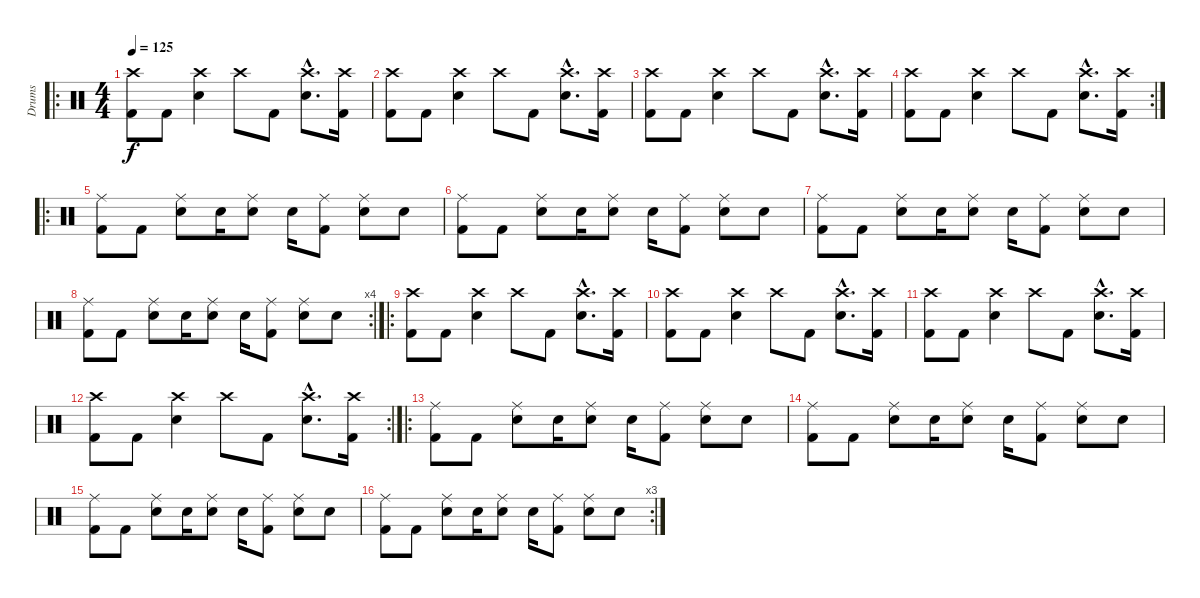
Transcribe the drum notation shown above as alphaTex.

\track ("Drums" "Drums") {instrument percussion}
\staff {score}
\articulation defaults
\ro
\ts (4 4)
\tempo 125
\clef neutral
\ks c
("Crash high (hit)" "Kick (hit) 2").8{dy f} "Kick (hit) 2".8 ("Crash high (hit)" "Snare (hit) 2").4 "Crash high (hit)".8 "Kick (hit) 2".8 ("Crash high (hit)"{hac} "Snare (hit) 2"{hac}).8{d} ("Crash high (hit)" "Kick (hit) 2").16 |
("Crash high (hit)" "Kick (hit) 2").8 "Kick (hit) 2".8 ("Crash high (hit)" "Snare (hit) 2").4 "Crash high (hit)".8 "Kick (hit) 2".8 ("Crash high (hit)"{hac} "Snare (hit) 2"{hac}).8{d} ("Crash high (hit)" "Kick (hit) 2").16 |
("Crash high (hit)" "Kick (hit) 2").8 "Kick (hit) 2".8 ("Crash high (hit)" "Snare (hit) 2").4 "Crash high (hit)".8 "Kick (hit) 2".8 ("Crash high (hit)"{hac} "Snare (hit) 2"{hac}).8{d} ("Crash high (hit)" "Kick (hit) 2").16 |
\rc 2
("Crash high (hit)" "Kick (hit) 2").8 "Kick (hit) 2".8 ("Crash high (hit)" "Snare (hit) 2").4 "Crash high (hit)".8 "Kick (hit) 2".8 ("Crash high (hit)"{hac} "Snare (hit) 2"{hac}).8{d} ("Crash high (hit)" "Kick (hit) 2").16 |
\ro
("Ride (middle)" "Kick (hit) 2").8 "Kick (hit) 2".8 ("Ride (middle)" "Snare (hit) 2").8 "Snare (hit) 2".16 ("Ride (middle)" "Snare (hit) 2").8 "Snare (hit) 2".16 ("Ride (middle)" "Kick (hit) 2").8 ("Ride (middle)" "Snare (hit) 2").8 "Snare (hit) 2".8 |
("Ride (middle)" "Kick (hit) 2").8 "Kick (hit) 2".8 ("Ride (middle)" "Snare (hit) 2").8 "Snare (hit) 2".16 ("Ride (middle)" "Snare (hit) 2").8 "Snare (hit) 2".16 ("Ride (middle)" "Kick (hit) 2").8 ("Ride (middle)" "Snare (hit) 2").8 "Snare (hit) 2".8 |
("Ride (middle)" "Kick (hit) 2").8 "Kick (hit) 2".8 ("Ride (middle)" "Snare (hit) 2").8 "Snare (hit) 2".16 ("Ride (middle)" "Snare (hit) 2").8 "Snare (hit) 2".16 ("Ride (middle)" "Kick (hit) 2").8 ("Ride (middle)" "Snare (hit) 2").8 "Snare (hit) 2".8 |
\rc 4
("Ride (middle)" "Kick (hit) 2").8 "Kick (hit) 2".8 ("Ride (middle)" "Snare (hit) 2").8 "Snare (hit) 2".16 ("Ride (middle)" "Snare (hit) 2").8 "Snare (hit) 2".16 ("Ride (middle)" "Kick (hit) 2").8 ("Ride (middle)" "Snare (hit) 2").8 "Snare (hit) 2".8 |
\ro
("Crash high (hit)" "Kick (hit) 2").8 "Kick (hit) 2".8 ("Crash high (hit)" "Snare (hit) 2").4 "Crash high (hit)".8 "Kick (hit) 2".8 ("Crash high (hit)"{hac} "Snare (hit) 2"{hac}).8{d} ("Crash high (hit)" "Kick (hit) 2").16 |
("Crash high (hit)" "Kick (hit) 2").8 "Kick (hit) 2".8 ("Crash high (hit)" "Snare (hit) 2").4 "Crash high (hit)".8 "Kick (hit) 2".8 ("Crash high (hit)"{hac} "Snare (hit) 2"{hac}).8{d} ("Crash high (hit)" "Kick (hit) 2").16 |
("Crash high (hit)" "Kick (hit) 2").8 "Kick (hit) 2".8 ("Crash high (hit)" "Snare (hit) 2").4 "Crash high (hit)".8 "Kick (hit) 2".8 ("Crash high (hit)"{hac} "Snare (hit) 2"{hac}).8{d} ("Crash high (hit)" "Kick (hit) 2").16 |
\rc 2
("Crash high (hit)" "Kick (hit) 2").8 "Kick (hit) 2".8 ("Crash high (hit)" "Snare (hit) 2").4 "Crash high (hit)".8 "Kick (hit) 2".8 ("Crash high (hit)"{hac} "Snare (hit) 2"{hac}).8{d} ("Crash high (hit)" "Kick (hit) 2").16 |
\ro
("Ride (middle)" "Kick (hit) 2").8 "Kick (hit) 2".8 ("Ride (middle)" "Snare (hit) 2").8 "Snare (hit) 2".16 ("Ride (middle)" "Snare (hit) 2").8 "Snare (hit) 2".16 ("Ride (middle)" "Kick (hit) 2").8 ("Ride (middle)" "Snare (hit) 2").8 "Snare (hit) 2".8 |
("Ride (middle)" "Kick (hit) 2").8 "Kick (hit) 2".8 ("Ride (middle)" "Snare (hit) 2").8 "Snare (hit) 2".16 ("Ride (middle)" "Snare (hit) 2").8 "Snare (hit) 2".16 ("Ride (middle)" "Kick (hit) 2").8 ("Ride (middle)" "Snare (hit) 2").8 "Snare (hit) 2".8 |
("Ride (middle)" "Kick (hit) 2").8 "Kick (hit) 2".8 ("Ride (middle)" "Snare (hit) 2").8 "Snare (hit) 2".16 ("Ride (middle)" "Snare (hit) 2").8 "Snare (hit) 2".16 ("Ride (middle)" "Kick (hit) 2").8 ("Ride (middle)" "Snare (hit) 2").8 "Snare (hit) 2".8 |
\rc 3
("Ride (middle)" "Kick (hit) 2").8 "Kick (hit) 2".8 ("Ride (middle)" "Snare (hit) 2").8 "Snare (hit) 2".16 ("Ride (middle)" "Snare (hit) 2").8 "Snare (hit) 2".16 ("Ride (middle)" "Kick (hit) 2").8 ("Ride (middle)" "Snare (hit) 2").8 "Snare (hit) 2".8
